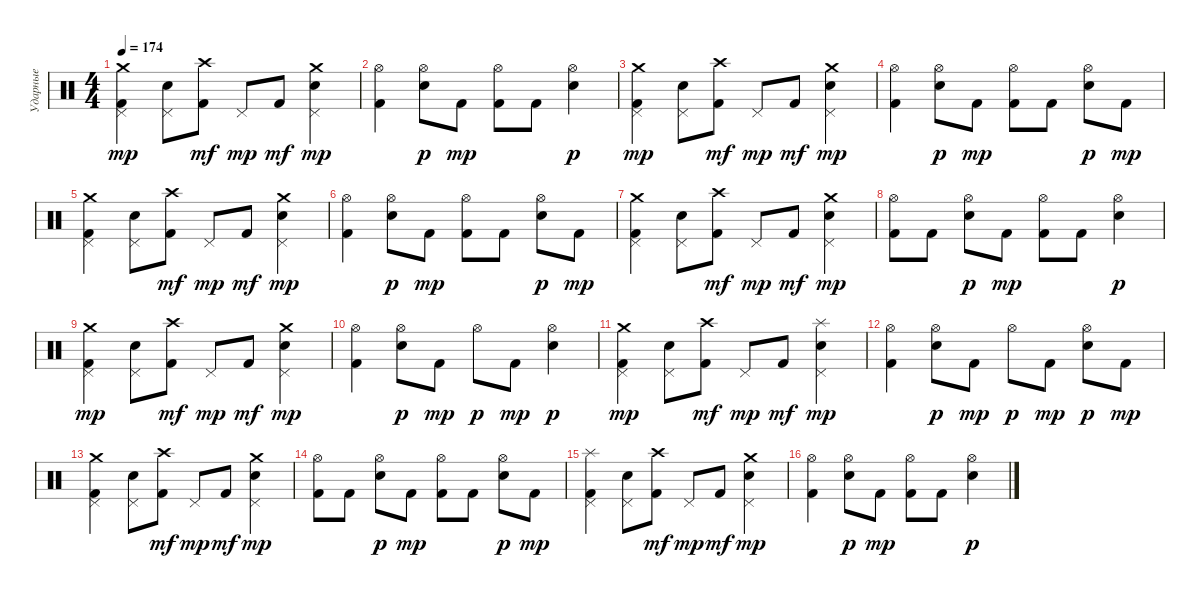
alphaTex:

\track ("Ударные" "Ударные") {instrument percussion}
\staff {score}
\articulation defaults
\ts (4 4)
\tempo 174
\clef neutral
\ks c
("Crash medium (hit)" "Kick (hit) 2" "Pedal Hi-Hat (hit)").4{dy mp} ("Electric Snare (hit)" "Pedal Hi-Hat (hit)").8 ("Crash high (hit)" "Kick (hit) 2").8{dy mf} "Pedal Hi-Hat (hit)".8{dy mp} "Kick (hit) 2".8{dy mf} ("Crash medium (hit)" "Electric Snare (hit)" "Pedal Hi-Hat (hit)").4{dy mp} |
("Hi-Hat (open)" "Kick (hit) 2").4 ("Hi-Hat (open)" "Electric Snare (hit)").8{dy p} "Kick (hit) 2".8{dy mp} ("Hi-Hat (open)" "Kick (hit) 2").8 "Kick (hit) 2".8 ("Hi-Hat (open)" "Electric Snare (hit)").4{dy p} |
("Crash medium (hit)" "Kick (hit) 2" "Pedal Hi-Hat (hit)").4{dy mp} ("Electric Snare (hit)" "Pedal Hi-Hat (hit)").8 ("Crash high (hit)" "Kick (hit) 2").8{dy mf} "Pedal Hi-Hat (hit)".8{dy mp} "Kick (hit) 2".8{dy mf} ("Crash medium (hit)" "Electric Snare (hit)" "Pedal Hi-Hat (hit)").4{dy mp} |
("Hi-Hat (open)" "Kick (hit) 2").4 ("Hi-Hat (open)" "Electric Snare (hit)").8{dy p} "Kick (hit) 2".8{dy mp} ("Hi-Hat (open)" "Kick (hit) 2").8 "Kick (hit) 2".8 ("Hi-Hat (open)" "Electric Snare (hit)").8{dy p} "Kick (hit) 2".8{dy mp} |
("Crash medium (hit)" "Kick (hit) 2" "Pedal Hi-Hat (hit)").4 ("Electric Snare (hit)" "Pedal Hi-Hat (hit)").8 ("Crash high (hit)" "Kick (hit) 2").8{dy mf} "Pedal Hi-Hat (hit)".8{dy mp} "Kick (hit) 2".8{dy mf} ("Crash medium (hit)" "Electric Snare (hit)" "Pedal Hi-Hat (hit)").4{dy mp} |
("Hi-Hat (open)" "Kick (hit) 2").4 ("Hi-Hat (open)" "Electric Snare (hit)").8{dy p} "Kick (hit) 2".8{dy mp} ("Hi-Hat (open)" "Kick (hit) 2").8 "Kick (hit) 2".8 ("Hi-Hat (open)" "Electric Snare (hit)").8{dy p} "Kick (hit) 2".8{dy mp} |
("Crash medium (hit)" "Kick (hit) 2" "Pedal Hi-Hat (hit)").4 ("Electric Snare (hit)" "Pedal Hi-Hat (hit)").8 ("Crash high (hit)" "Kick (hit) 2").8{dy mf} "Pedal Hi-Hat (hit)".8{dy mp} "Kick (hit) 2".8{dy mf} ("Crash medium (hit)" "Electric Snare (hit)" "Pedal Hi-Hat (hit)").4{dy mp} |
("Hi-Hat (open)" "Kick (hit) 2").8 "Kick (hit) 2".8 ("Hi-Hat (open)" "Electric Snare (hit)").8{dy p} "Kick (hit) 2".8{dy mp} ("Hi-Hat (open)" "Kick (hit) 2").8 "Kick (hit) 2".8 ("Hi-Hat (open)" "Electric Snare (hit)").4{dy p} |
("Crash medium (hit)" "Kick (hit) 2" "Pedal Hi-Hat (hit)").4{dy mp} ("Electric Snare (hit)" "Pedal Hi-Hat (hit)").8 ("Crash high (hit)" "Kick (hit) 2").8{dy mf} "Pedal Hi-Hat (hit)".8{dy mp} "Kick (hit) 2".8{dy mf} ("Crash medium (hit)" "Electric Snare (hit)" "Pedal Hi-Hat (hit)").4{dy mp} |
("Hi-Hat (open)" "Kick (hit) 2").4 ("Hi-Hat (open)" "Electric Snare (hit)").8{dy p} "Kick (hit) 2".8{dy mp} "Hi-Hat (open)".8{dy p} "Kick (hit) 2".8{dy mp} ("Hi-Hat (open)" "Electric Snare (hit)").4{dy p} |
("Crash medium (hit)" "Kick (hit) 2" "Pedal Hi-Hat (hit)").4{dy mp} ("Electric Snare (hit)" "Pedal Hi-Hat (hit)").8 ("Crash high (hit)" "Kick (hit) 2").8{dy mf} "Pedal Hi-Hat (hit)".8{dy mp} "Kick (hit) 2".8{dy mf} ("Splash (hit)" "Electric Snare (hit)" "Pedal Hi-Hat (hit)").4{dy mp} |
("Hi-Hat (open)" "Kick (hit) 2").4 ("Hi-Hat (open)" "Electric Snare (hit)").8{dy p} "Kick (hit) 2".8{dy mp} "Hi-Hat (open)".8{dy p} "Kick (hit) 2".8{dy mp} ("Hi-Hat (open)" "Electric Snare (hit)").8{dy p} "Kick (hit) 2".8{dy mp} |
("Crash medium (hit)" "Kick (hit) 2" "Pedal Hi-Hat (hit)").4 ("Electric Snare (hit)" "Pedal Hi-Hat (hit)").8 ("Crash high (hit)" "Kick (hit) 2").8{dy mf} "Pedal Hi-Hat (hit)".8{dy mp} "Kick (hit) 2".8{dy mf} ("Crash medium (hit)" "Electric Snare (hit)" "Pedal Hi-Hat (hit)").4{dy mp} |
("Hi-Hat (open)" "Kick (hit) 2").8 "Kick (hit) 2".8 ("Hi-Hat (open)" "Electric Snare (hit)").8{dy p} "Kick (hit) 2".8{dy mp} ("Hi-Hat (open)" "Kick (hit) 2").8 "Kick (hit) 2".8 ("Hi-Hat (open)" "Electric Snare (hit)").8{dy p} "Kick (hit) 2".8{dy mp} |
("Splash (hit)" "Kick (hit) 2" "Pedal Hi-Hat (hit)").4 ("Electric Snare (hit)" "Pedal Hi-Hat (hit)").8 ("Crash high (hit)" "Kick (hit) 2").8{dy mf} "Pedal Hi-Hat (hit)".8{dy mp} "Kick (hit) 2".8{dy mf} ("Crash medium (hit)" "Electric Snare (hit)" "Pedal Hi-Hat (hit)").4{dy mp} |
("Hi-Hat (open)" "Kick (hit) 2").4 ("Hi-Hat (open)" "Electric Snare (hit)").8{dy p} "Kick (hit) 2".8{dy mp} ("Hi-Hat (open)" "Kick (hit) 2").8 "Kick (hit) 2".8 ("Hi-Hat (open)" "Electric Snare (hit)").4{dy p}
